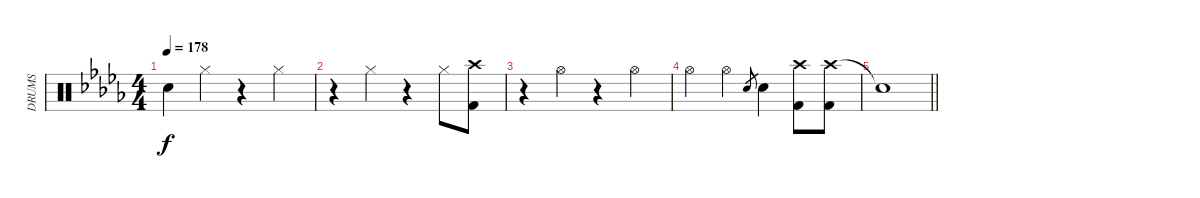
\track ("DRUMS" "DRUMS") {instrument percussion}
\staff {score}
\articulation defaults
\ts (4 4)
\tempo 178
\clef neutral
\ks db "Snare (hit)"{t}.4{dy f} "Hi-Hat (closed)".4
r.4 "Hi-Hat (closed)".4 |
r.4 "Hi-Hat (closed)".4 r.4 "Hi-Hat (closed)".8 ("Crash high (hit)" "Kick (hit) 2").8 |
r.4 "Hi-Hat (open)".4 r.4 "Hi-Hat (open)".4 |
"Hi-Hat (open)".4 "Hi-Hat (open)".4 "Snare (hit) 2".8{gr} "Snare (hit) 2".4 ("Crash high (hit)" "Kick (hit) 2").8 ("Crash high (hit)" "Kick (hit) 2").8 |
\barLineRight lightlight "Snare (hit)"{t}.1
